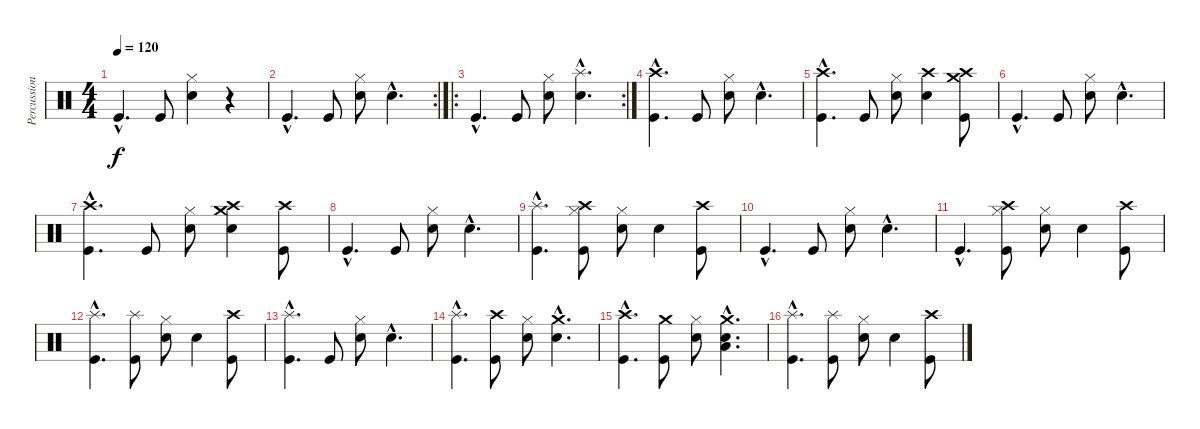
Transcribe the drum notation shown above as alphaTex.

\track ("Percussion" "Percussion") {instrument percussion}
\staff {score}
\articulation defaults
\ts (4 4)
\tempo 120
\clef neutral
\ks c "Kick (hit)"{hac}.4{d dy f} "Kick (hit)".8
("Snare (hit) 2" "Hi-Hat (closed)").4 r.4 |
\rc 2 "Kick (hit)"{hac}.4{d} "Kick (hit)".8
("Snare (hit) 2" "Hi-Hat (closed)").8 "Snare (hit) 2"{hac}.4{d} |
\ro
\rc 2 "Kick (hit)"{hac}.4{d} "Kick (hit)".8
("Snare (hit) 2" "Hi-Hat (closed)").8 ("Snare (hit) 2"{hac} "Splash (hit)"{hac}).4{d} |
("Kick (hit)"{hac} "Crash high (hit)"{hac}).4{d} "Kick (hit)".8 ("Snare (hit) 2" "Hi-Hat (closed)").8 "Snare (hit) 2"{hac}.4{d} |
("Kick (hit)"{hac} "Crash high (hit)"{hac}).4{d} "Kick (hit)".8 ("Snare (hit) 2" "Hi-Hat (closed)").8 ("Snare (hit) 2" "Crash high (hit)").4 ("Kick (hit)" "Crash high (hit)" "Crash medium (hit)").8 |
"Kick (hit)"{hac}.4{d} "Kick (hit)".8 ("Snare (hit) 2" "Hi-Hat (closed)").8 "Snare (hit) 2"{hac}.4{d} |
("Kick (hit)"{hac} "Crash high (hit)"{hac}).4{d} "Kick (hit)".8 ("Snare (hit) 2" "Hi-Hat (closed)").8 ("Snare (hit) 2" "Crash high (hit)" "Crash medium (hit)").4 ("Kick (hit)" "Crash high (hit)").8 |
"Kick (hit)"{hac}.4{d} "Kick (hit)".8 ("Snare (hit) 2" "Hi-Hat (closed)").8 "Snare (hit) 2"{hac}.4{d} |
("Kick (hit)"{hac} "Splash (hit)"{hac}).4{d} ("Kick (hit)" "Hi-Hat (closed)" "Crash high (hit)").8 ("Snare (hit) 2" "Hi-Hat (closed)").8 "Snare (hit) 2".4 ("Kick (hit)" "Crash high (hit)").8 |
"Kick (hit)"{hac}.4{d} "Kick (hit)".8 ("Snare (hit) 2" "Hi-Hat (closed)").8 "Snare (hit) 2"{hac}.4{d} |
"Kick (hit)"{hac}.4{d} ("Kick (hit)" "Hi-Hat (closed)" "Crash high (hit)").8 ("Snare (hit) 2" "Hi-Hat (closed)").8 "Snare (hit) 2".4 ("Kick (hit)" "Crash high (hit)").8 |
("Kick (hit)"{hac} "Splash (hit)"{hac}).4{d} ("Kick (hit)" "Splash (hit)").8 ("Snare (hit) 2" "Hi-Hat (closed)").8 "Snare (hit) 2".4 ("Kick (hit)" "Crash high (hit)").8 |
("Kick (hit)"{hac} "Splash (hit)"{hac}).4{d} "Kick (hit)".8 ("Snare (hit) 2" "Hi-Hat (closed)").8 "Snare (hit) 2"{hac}.4{d} |
("Kick (hit)"{hac} "Splash (hit)"{hac}).4{d} ("Kick (hit)" "Crash high (hit)").8 ("Snare (hit) 2" "Hi-Hat (closed)").8 ("Snare (hit) 2"{hac} "Crash medium (hit)"{hac}).4{d} |
("Kick (hit)"{hac} "Crash high (hit)"{hac}).4{d} ("Kick (hit)" "Crash medium (hit)").8 ("Snare (hit) 2" "Hi-Hat (closed)").8 ("Snare (hit) 2"{hac} "Low Tom (hit)"{hac} "Crash medium (hit)"{hac}).4{d} |
("Kick (hit)"{hac} "Splash (hit)"{hac}).4{d} ("Kick (hit)" "Splash (hit)").8 ("Snare (hit) 2" "Hi-Hat (closed)").8 "Snare (hit) 2".4 ("Kick (hit)" "Crash high (hit)").8
